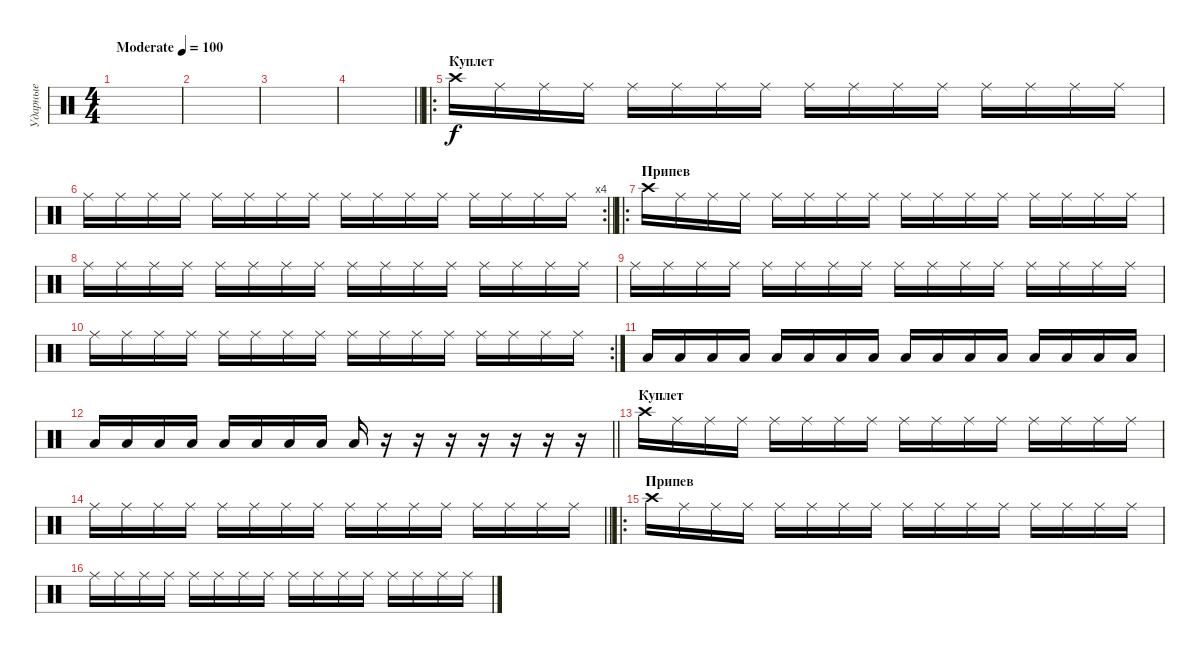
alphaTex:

\track ("Ударные" "Ударные") {instrument percussion}
\staff {score}
\articulation defaults
\ts (4 4)
\tempo (100 "Moderate")
\clef neutral
\ks c
|
|
|
\barLineRight lightlight
|
\ro
\section ("" "Куплет")
"Crash high (hit)".16 "Ride (middle)".16 "Ride (middle)".16 "Ride (middle)".16 "Ride (middle)".16 "Ride (middle)".16 "Ride (middle)".16 "Ride (middle)".16 "Ride (middle)".16 "Ride (middle)".16 "Ride (middle)".16 "Ride (middle)".16 "Ride (middle)".16 "Ride (middle)".16 "Ride (middle)".16 "Ride (middle)".16 |
\rc 4
\barLineRight lightlight "Ride (middle)".16 "Ride (middle)".16 "Ride (middle)".16 "Ride (middle)".16 "Ride (middle)".16 "Ride (middle)".16 "Ride (middle)".16 "Ride (middle)".16 "Ride (middle)".16 "Ride (middle)".16 "Ride (middle)".16 "Ride (middle)".16 "Ride (middle)".16 "Ride (middle)".16 "Ride (middle)".16 "Ride (middle)".16
|
\ro
\section ("" "Припев")
"Crash high (hit)".16 "Ride (middle)".16 "Ride (middle)".16 "Ride (middle)".16 "Ride (middle)".16 "Ride (middle)".16 "Ride (middle)".16 "Ride (middle)".16 "Ride (middle)".16 "Ride (middle)".16 "Ride (middle)".16 "Ride (middle)".16 "Ride (middle)".16 "Ride (middle)".16 "Ride (middle)".16 "Ride (middle)".16 |
"Ride (middle)".16 "Ride (middle)".16 "Ride (middle)".16 "Ride (middle)".16 "Ride (middle)".16 "Ride (middle)".16 "Ride (middle)".16 "Ride (middle)".16 "Ride (middle)".16 "Ride (middle)".16 "Ride (middle)".16 "Ride (middle)".16 "Ride (middle)".16 "Ride (middle)".16 "Ride (middle)".16 "Ride (middle)".16 |
"Ride (middle)".16 "Ride (middle)".16 "Ride (middle)".16 "Ride (middle)".16 "Ride (middle)".16 "Ride (middle)".16 "Ride (middle)".16 "Ride (middle)".16 "Ride (middle)".16 "Ride (middle)".16 "Ride (middle)".16 "Ride (middle)".16 "Ride (middle)".16 "Ride (middle)".16 "Ride (middle)".16 "Ride (middle)".16 |
\rc 2 "Ride (middle)".16 "Ride (middle)".16 "Ride (middle)".16 "Ride (middle)".16 "Ride (middle)".16 "Ride (middle)".16 "Ride (middle)".16 "Ride (middle)".16 "Ride (middle)".16 "Ride (middle)".16 "Ride (middle)".16 "Ride (middle)".16 "Ride (middle)".16 "Ride (middle)".16 "Ride (middle)".16 "Ride (middle)".16
|
"Low Floor Tom (hit)".16 "Low Floor Tom (hit)".16 "Low Floor Tom (hit)".16 "Low Floor Tom (hit)".16 "Low Floor Tom (hit)".16 "Low Floor Tom (hit)".16 "Low Floor Tom (hit)".16 "Low Floor Tom (hit)".16 "Low Floor Tom (hit)".16 "Low Floor Tom (hit)".16 "Low Floor Tom (hit)".16 "Low Floor Tom (hit)".16 "Low Floor Tom (hit)".16 "Low Floor Tom (hit)".16 "Low Floor Tom (hit)".16 "Low Floor Tom (hit)".16 |
\barLineRight lightlight "Low Floor Tom (hit)".16 "Low Floor Tom (hit)".16 "Low Floor Tom (hit)".16 "Low Floor Tom (hit)".16 "Low Floor Tom (hit)".16 "Low Floor Tom (hit)".16 "Low Floor Tom (hit)".16 "Low Floor Tom (hit)".16 "Low Floor Tom (hit)".16
r.16 r.16 r.16 r.16 r.16 r.16 r.16 |
\section ("" "Куплет")
"Crash high (hit)".16 "Ride (middle)".16 "Ride (middle)".16 "Ride (middle)".16 "Ride (middle)".16 "Ride (middle)".16 "Ride (middle)".16 "Ride (middle)".16 "Ride (middle)".16 "Ride (middle)".16 "Ride (middle)".16 "Ride (middle)".16 "Ride (middle)".16 "Ride (middle)".16 "Ride (middle)".16 "Ride (middle)".16 |
\barLineRight lightlight "Ride (middle)".16 "Ride (middle)".16 "Ride (middle)".16 "Ride (middle)".16 "Ride (middle)".16 "Ride (middle)".16 "Ride (middle)".16 "Ride (middle)".16 "Ride (middle)".16 "Ride (middle)".16 "Ride (middle)".16 "Ride (middle)".16 "Ride (middle)".16 "Ride (middle)".16 "Ride (middle)".16 "Ride (middle)".16
|
\ro
\section ("" "Припев")
"Crash high (hit)".16 "Ride (middle)".16 "Ride (middle)".16 "Ride (middle)".16 "Ride (middle)".16 "Ride (middle)".16 "Ride (middle)".16 "Ride (middle)".16 "Ride (middle)".16 "Ride (middle)".16 "Ride (middle)".16 "Ride (middle)".16 "Ride (middle)".16 "Ride (middle)".16 "Ride (middle)".16 "Ride (middle)".16 |
"Ride (middle)".16 "Ride (middle)".16 "Ride (middle)".16 "Ride (middle)".16 "Ride (middle)".16 "Ride (middle)".16 "Ride (middle)".16 "Ride (middle)".16 "Ride (middle)".16 "Ride (middle)".16 "Ride (middle)".16 "Ride (middle)".16 "Ride (middle)".16 "Ride (middle)".16 "Ride (middle)".16 "Ride (middle)".16
